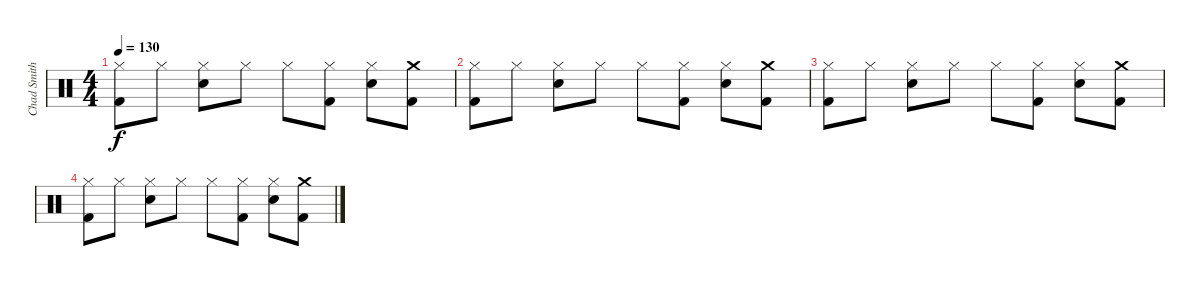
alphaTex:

\track ("Chad Smith" "Chad Smith") {instrument percussion}
\staff {score}
\articulation defaults
\ts (4 4)
\tempo 130
\clef neutral
\ks c
("Hi-Hat (closed)" "Kick (hit) 2").8{dy f} "Hi-Hat (closed)".8 ("Hi-Hat (closed)" "Electric Snare (hit)").8 "Hi-Hat (closed)".8 "Hi-Hat (closed)".8 ("Hi-Hat (closed)" "Kick (hit) 2").8 ("Hi-Hat (closed)" "Electric Snare (hit)").8 ("Crash medium (hit)" "Kick (hit) 2").8 |
("Hi-Hat (closed)" "Kick (hit) 2").8 "Hi-Hat (closed)".8 ("Hi-Hat (closed)" "Electric Snare (hit)").8 "Hi-Hat (closed)".8 "Hi-Hat (closed)".8 ("Hi-Hat (closed)" "Kick (hit) 2").8 ("Hi-Hat (closed)" "Electric Snare (hit)").8 ("Crash medium (hit)" "Kick (hit) 2").8 |
("Hi-Hat (closed)" "Kick (hit) 2").8 "Hi-Hat (closed)".8 ("Hi-Hat (closed)" "Electric Snare (hit)").8 "Hi-Hat (closed)".8 "Hi-Hat (closed)".8 ("Hi-Hat (closed)" "Kick (hit) 2").8 ("Hi-Hat (closed)" "Electric Snare (hit)").8 ("Crash medium (hit)" "Kick (hit) 2").8 |
("Hi-Hat (closed)" "Kick (hit) 2").8 "Hi-Hat (closed)".8 ("Hi-Hat (closed)" "Electric Snare (hit)").8 "Hi-Hat (closed)".8 "Hi-Hat (closed)".8 ("Hi-Hat (closed)" "Kick (hit) 2").8 ("Hi-Hat (closed)" "Electric Snare (hit)").8 ("Crash medium (hit)" "Kick (hit) 2").8
